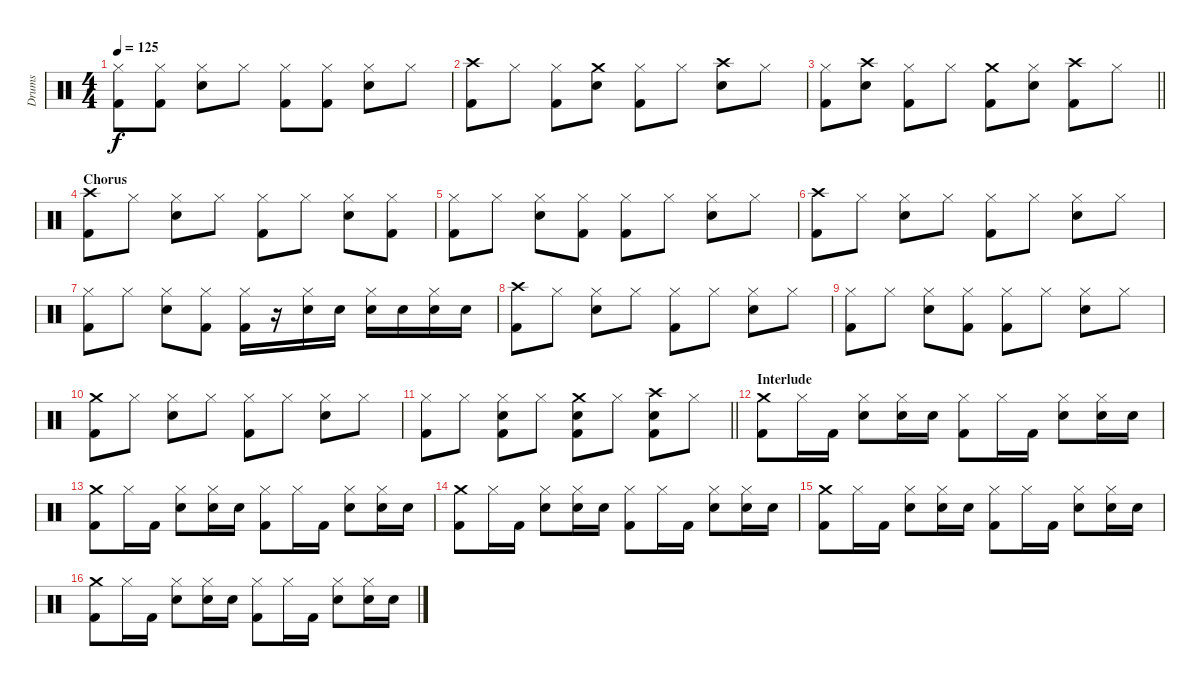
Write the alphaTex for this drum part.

\track ("Drums" "Drums") {instrument percussion}
\staff {score}
\articulation defaults
\ts (4 4)
\tempo 125
\clef neutral
\ks c
("Hi-Hat (closed)" "Kick (hit) 2").8{dy f} ("Hi-Hat (closed)" "Kick (hit) 2").8 ("Hi-Hat (closed)" "Electric Snare (hit)").8 "Hi-Hat (closed)".8 ("Hi-Hat (closed)" "Kick (hit) 2").8 ("Hi-Hat (closed)" "Kick (hit) 2").8 ("Hi-Hat (closed)" "Electric Snare (hit)").8 "Hi-Hat (closed)".8 |
("Crash high (hit)" "Kick (hit) 2").8 "Hi-Hat (closed)".8 ("Hi-Hat (closed)" "Kick (hit) 2").8 ("Crash medium (hit)" "Electric Snare (hit)").8 ("Hi-Hat (closed)" "Kick (hit) 2").8 "Hi-Hat (closed)".8 ("Crash high (hit)" "Electric Snare (hit)").8 "Hi-Hat (closed)".8 |
\barLineRight lightlight
("Hi-Hat (closed)" "Kick (hit) 2").8 ("Crash high (hit)" "Electric Snare (hit)").8 ("Hi-Hat (closed)" "Kick (hit) 2").8 "Hi-Hat (closed)".8 ("Crash medium (hit)" "Kick (hit) 2").8 ("Hi-Hat (closed)" "Electric Snare (hit)").8 ("Crash high (hit)" "Kick (hit) 2").8 "Hi-Hat (closed)".8 |
\section ("" "Chorus")
("Crash high (hit)" "Kick (hit) 2").8 "Hi-Hat (closed)".8 ("Hi-Hat (closed)" "Electric Snare (hit)").8 "Hi-Hat (closed)".8 ("Hi-Hat (closed)" "Kick (hit) 2").8 "Hi-Hat (closed)".8 ("Hi-Hat (closed)" "Electric Snare (hit)").8 ("Hi-Hat (closed)" "Kick (hit) 2").8 |
("Hi-Hat (closed)" "Kick (hit) 2").8 "Hi-Hat (closed)".8 ("Hi-Hat (closed)" "Electric Snare (hit)").8 ("Hi-Hat (closed)" "Kick (hit) 2").8 ("Hi-Hat (closed)" "Kick (hit) 2").8 "Hi-Hat (closed)".8 ("Hi-Hat (closed)" "Electric Snare (hit)").8 "Hi-Hat (closed)".8 |
("Crash high (hit)" "Kick (hit) 2").8 "Hi-Hat (closed)".8 ("Hi-Hat (closed)" "Electric Snare (hit)").8 "Hi-Hat (closed)".8 ("Hi-Hat (closed)" "Kick (hit) 2").8 "Hi-Hat (closed)".8 ("Hi-Hat (closed)" "Electric Snare (hit)").8 "Hi-Hat (closed)".8 |
("Hi-Hat (closed)" "Kick (hit) 2").8 "Hi-Hat (closed)".8 ("Hi-Hat (closed)" "Electric Snare (hit)").8 ("Hi-Hat (closed)" "Kick (hit) 2").8 ("Hi-Hat (closed)" "Kick (hit) 2").16 r.16 ("Hi-Hat (closed)" "Electric Snare (hit)").16 "Electric Snare (hit)".16 ("Hi-Hat (closed)" "Electric Snare (hit)").16 "Electric Snare (hit)".16 ("Hi-Hat (closed)" "Electric Snare (hit)").16 "Electric Snare (hit)".16 |
("Crash high (hit)" "Kick (hit) 2").8 "Hi-Hat (closed)".8 ("Hi-Hat (closed)" "Electric Snare (hit)").8 "Hi-Hat (closed)".8 ("Hi-Hat (closed)" "Kick (hit) 2").8 "Hi-Hat (closed)".8 ("Hi-Hat (closed)" "Electric Snare (hit)").8 "Hi-Hat (closed)".8 |
("Hi-Hat (closed)" "Kick (hit) 2").8 "Hi-Hat (closed)".8 ("Hi-Hat (closed)" "Electric Snare (hit)").8 ("Hi-Hat (closed)" "Kick (hit) 2").8 ("Hi-Hat (closed)" "Kick (hit) 2").8 "Hi-Hat (closed)".8 ("Hi-Hat (closed)" "Electric Snare (hit)").8 "Hi-Hat (closed)".8 |
("Crash medium (hit)" "Kick (hit) 2").8 "Hi-Hat (closed)".8 ("Hi-Hat (closed)" "Electric Snare (hit)").8 "Hi-Hat (closed)".8 ("Hi-Hat (closed)" "Kick (hit) 2").8 "Hi-Hat (closed)".8 ("Hi-Hat (closed)" "Electric Snare (hit)").8 "Hi-Hat (closed)".8 |
\barLineRight lightlight
("Hi-Hat (closed)" "Kick (hit) 2").8 "Hi-Hat (closed)".8 ("Hi-Hat (closed)" "Electric Snare (hit)" "Kick (hit) 2").8 "Hi-Hat (closed)".8 ("Crash medium (hit)" "Electric Snare (hit)" "Kick (hit) 2").8 "Hi-Hat (closed)".8 ("Crash high (hit)" "Electric Snare (hit)" "Kick (hit) 2").8 "Hi-Hat (closed)".8 |
\section ("" "Interlude")
("Crash medium (hit)" "Kick (hit) 2").8 "Hi-Hat (closed)".16 "Kick (hit) 2".16 ("Hi-Hat (closed)" "Electric Snare (hit)").8 ("Hi-Hat (closed)" "Electric Snare (hit)").16 "Electric Snare (hit)".16 ("Hi-Hat (closed)" "Kick (hit) 2").8 "Hi-Hat (closed)".16 "Kick (hit) 2".16 ("Hi-Hat (closed)" "Electric Snare (hit)").8 ("Hi-Hat (closed)" "Electric Snare (hit)").16 "Electric Snare (hit)".16 |
("Crash medium (hit)" "Kick (hit) 2").8 "Hi-Hat (closed)".16 "Kick (hit) 2".16 ("Hi-Hat (closed)" "Electric Snare (hit)").8 ("Hi-Hat (closed)" "Electric Snare (hit)").16 "Electric Snare (hit)".16 ("Hi-Hat (closed)" "Kick (hit) 2").8 "Hi-Hat (closed)".16 "Kick (hit) 2".16 ("Hi-Hat (closed)" "Electric Snare (hit)").8 ("Hi-Hat (closed)" "Electric Snare (hit)").16 "Electric Snare (hit)".16 |
("Crash medium (hit)" "Kick (hit) 2").8 "Hi-Hat (closed)".16 "Kick (hit) 2".16 ("Hi-Hat (closed)" "Electric Snare (hit)").8 ("Hi-Hat (closed)" "Electric Snare (hit)").16 "Electric Snare (hit)".16 ("Hi-Hat (closed)" "Kick (hit) 2").8 "Hi-Hat (closed)".16 "Kick (hit) 2".16 ("Hi-Hat (closed)" "Electric Snare (hit)").8 ("Hi-Hat (closed)" "Electric Snare (hit)").16 "Electric Snare (hit)".16 |
("Crash medium (hit)" "Kick (hit) 2").8 "Hi-Hat (closed)".16 "Kick (hit) 2".16 ("Hi-Hat (closed)" "Electric Snare (hit)").8 ("Hi-Hat (closed)" "Electric Snare (hit)").16 "Electric Snare (hit)".16 ("Hi-Hat (closed)" "Kick (hit) 2").8 "Hi-Hat (closed)".16 "Kick (hit) 2".16 ("Hi-Hat (closed)" "Electric Snare (hit)").8 ("Hi-Hat (closed)" "Electric Snare (hit)").16 "Electric Snare (hit)".16 |
("Crash medium (hit)" "Kick (hit) 2").8 "Hi-Hat (closed)".16 "Kick (hit) 2".16 ("Hi-Hat (closed)" "Electric Snare (hit)").8 ("Hi-Hat (closed)" "Electric Snare (hit)").16 "Electric Snare (hit)".16 ("Hi-Hat (closed)" "Kick (hit) 2").8 "Hi-Hat (closed)".16 "Kick (hit) 2".16 ("Hi-Hat (closed)" "Electric Snare (hit)").8 ("Hi-Hat (closed)" "Electric Snare (hit)").16 "Electric Snare (hit)".16
